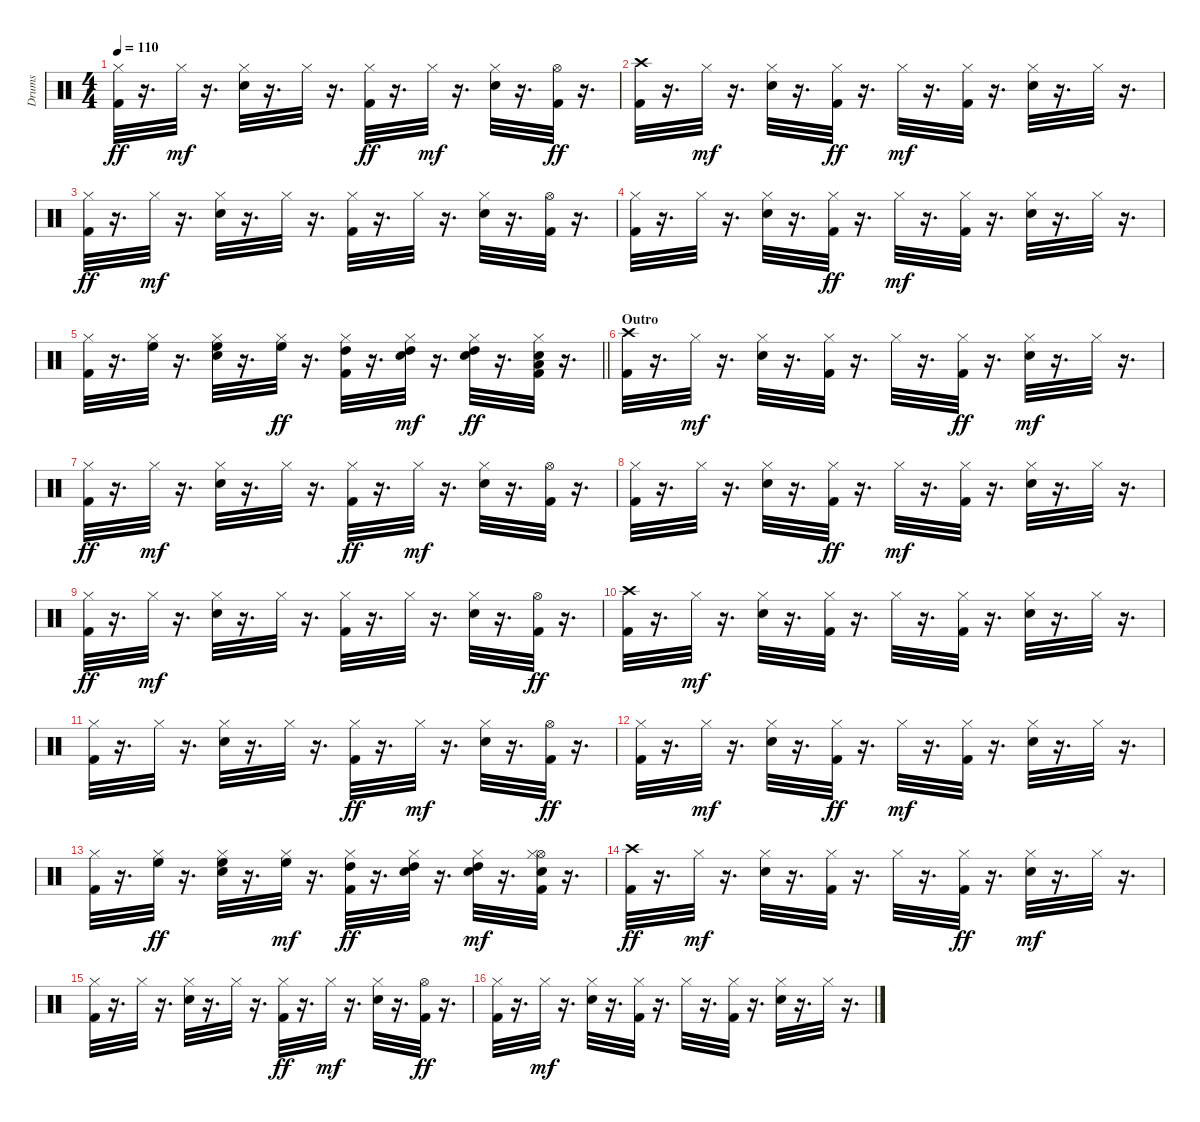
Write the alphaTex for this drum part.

\track ("Drums" "Drums") {instrument percussion}
\staff {score}
\articulation defaults
\ts (4 4)
\tempo 110
\clef neutral
\ks c
("Hi-Hat (closed)" "Kick (hit) 2").32{dy ff} r.16{d} "Hi-Hat (closed)".32{dy mf} r.16{d} ("Hi-Hat (closed)" "Snare (hit) 2").32 r.16{d} "Hi-Hat (closed)".32 r.16{d} ("Hi-Hat (closed)" "Kick (hit) 2").32{dy ff} r.16{d} "Hi-Hat (closed)".32{dy mf} r.16{d} ("Snare (hit) 2" "Hi-Hat (closed)").32 r.16{d} ("Hi-Hat (open)" "Kick (hit) 2").32{dy ff} r.16{d} |
("Kick (hit) 2" "Crash high (hit)").32 r.16{d} "Hi-Hat (closed)".32{dy mf} r.16{d} ("Snare (hit) 2" "Hi-Hat (closed)").32 r.16{d} ("Hi-Hat (closed)" "Kick (hit) 2").32{dy ff} r.16{d} "Hi-Hat (closed)".32{dy mf} r.16{d} ("Kick (hit) 2" "Hi-Hat (closed)").32 r.16{d} ("Hi-Hat (closed)" "Snare (hit) 2").32 r.16{d} "Hi-Hat (closed)".32 r.16{d} |
("Hi-Hat (closed)" "Kick (hit) 2").32{dy ff} r.16{d} "Hi-Hat (closed)".32{dy mf} r.16{d} ("Snare (hit) 2" "Hi-Hat (closed)").32 r.16{d} "Hi-Hat (closed)".32 r.16{d} ("Kick (hit) 2" "Hi-Hat (closed)").32 r.16{d} "Hi-Hat (closed)".32 r.16{d} ("Hi-Hat (closed)" "Snare (hit) 2").32 r.16{d} ("Kick (hit) 2" "Hi-Hat (open)").32 r.16{d} |
("Kick (hit) 2" "Hi-Hat (closed)").32 r.16{d} "Hi-Hat (closed)".32 r.16{d} ("Hi-Hat (closed)" "Snare (hit) 2").32 r.16{d} ("Hi-Hat (closed)" "Kick (hit) 2").32{dy ff} r.16{d} "Hi-Hat (closed)".32{dy mf} r.16{d} ("Kick (hit) 2" "Hi-Hat (closed)").32 r.16{d} ("Snare (hit) 2" "Hi-Hat (closed)").32 r.16{d} "Hi-Hat (closed)".32 r.16{d} |
\barLineRight lightlight
("Kick (hit) 2" "Hi-Hat (closed)").32 r.16{d} ("High Floor Tom (hit)" "Hi-Hat (closed)").32 r.16{d} ("High Floor Tom (hit)" "Hi-Hat (closed)" "Snare (hit) 2").32 r.16{d} ("Hi-Hat (closed)" "High Floor Tom (hit)").32{dy ff} r.16{d} ("Kick (hit) 2" "Hi-Hat (closed)" "High Tom (hit)").32 r.16{d} ("High Tom (hit)" "Hi-Hat (closed)" "Snare (hit) 2").32{dy mf} r.16{d} ("Hi-Hat (closed)" "Snare (hit) 2" "High Tom (hit)").32{dy ff} r.16{d} ("Kick (hit) 2" "Hi-Hat (closed)" "Snare (hit) 2" "Low Tom (hit)").32 r.16{d} |
\section ("" "Outro")
("Crash high (hit)" "Kick (hit) 2").32 r.16{d} "Hi-Hat (closed)".32{dy mf} r.16{d} ("Snare (hit) 2" "Hi-Hat (closed)").32 r.16{d} ("Kick (hit) 2" "Hi-Hat (closed)").32 r.16{d} "Hi-Hat (closed)".32 r.16{d} ("Hi-Hat (closed)" "Kick (hit) 2").32{dy ff} r.16{d} ("Hi-Hat (closed)" "Snare (hit) 2").32{dy mf} r.16{d} "Hi-Hat (closed)".32 r.16{d} |
("Hi-Hat (closed)" "Kick (hit) 2").32{dy ff} r.16{d} "Hi-Hat (closed)".32{dy mf} r.16{d} ("Hi-Hat (closed)" "Snare (hit) 2").32 r.16{d} "Hi-Hat (closed)".32 r.16{d} ("Hi-Hat (closed)" "Kick (hit) 2").32{dy ff} r.16{d} "Hi-Hat (closed)".32{dy mf} r.16{d} ("Hi-Hat (closed)" "Snare (hit) 2").32 r.16{d} ("Kick (hit) 2" "Hi-Hat (open)").32 r.16{d} |
("Kick (hit) 2" "Hi-Hat (closed)").32 r.16{d} "Hi-Hat (closed)".32 r.16{d} ("Snare (hit) 2" "Hi-Hat (closed)").32 r.16{d} ("Hi-Hat (closed)" "Kick (hit) 2").32{dy ff} r.16{d} "Hi-Hat (closed)".32{dy mf} r.16{d} ("Kick (hit) 2" "Hi-Hat (closed)").32 r.16{d} ("Snare (hit) 2" "Hi-Hat (closed)").32 r.16{d} "Hi-Hat (closed)".32 r.16{d} |
("Hi-Hat (closed)" "Kick (hit) 2").32{dy ff} r.16{d} "Hi-Hat (closed)".32{dy mf} r.16{d} ("Snare (hit) 2" "Hi-Hat (closed)").32 r.16{d} "Hi-Hat (closed)".32 r.16{d} ("Kick (hit) 2" "Hi-Hat (closed)").32 r.16{d} "Hi-Hat (closed)".32 r.16{d} ("Snare (hit) 2" "Hi-Hat (closed)").32 r.16{d} ("Hi-Hat (open)" "Kick (hit) 2").32{dy ff} r.16{d} |
("Crash high (hit)" "Kick (hit) 2").32 r.16{d} "Hi-Hat (closed)".32{dy mf} r.16{d} ("Snare (hit) 2" "Hi-Hat (closed)").32 r.16{d} ("Kick (hit) 2" "Hi-Hat (closed)").32 r.16{d} "Hi-Hat (closed)".32 r.16{d} ("Kick (hit) 2" "Hi-Hat (closed)").32 r.16{d} ("Snare (hit) 2" "Hi-Hat (closed)").32 r.16{d} "Hi-Hat (closed)".32 r.16{d} |
("Kick (hit) 2" "Hi-Hat (closed)").32 r.16{d} "Hi-Hat (closed)".32 r.16{d} ("Snare (hit) 2" "Hi-Hat (closed)").32 r.16{d} "Hi-Hat (closed)".32 r.16{d} ("Hi-Hat (closed)" "Kick (hit) 2").32{dy ff} r.16{d} "Hi-Hat (closed)".32{dy mf} r.16{d} ("Snare (hit) 2" "Hi-Hat (closed)").32 r.16{d} ("Hi-Hat (open)" "Kick (hit) 2").32{dy ff} r.16{d} |
("Hi-Hat (closed)" "Kick (hit) 2").32 r.16{d} "Hi-Hat (closed)".32{dy mf} r.16{d} ("Snare (hit) 2" "Hi-Hat (closed)").32 r.16{d} ("Hi-Hat (closed)" "Kick (hit) 2").32{dy ff} r.16{d} "Hi-Hat (closed)".32{dy mf} r.16{d} ("Kick (hit) 2" "Hi-Hat (closed)").32 r.16{d} ("Hi-Hat (closed)" "Snare (hit) 2").32 r.16{d} "Hi-Hat (closed)".32 r.16{d} |
("Kick (hit) 2" "Hi-Hat (closed)").32 r.16{d} ("Hi-Hat (closed)" "High Floor Tom (hit)").32{dy ff} r.16{d} ("Hi-Hat (closed)" "Snare (hit) 2" "High Floor Tom (hit)").32 r.16{d} ("High Floor Tom (hit)" "Hi-Hat (closed)").32{dy mf} r.16{d} ("Hi-Hat (closed)" "High Tom (hit)" "Kick (hit) 2").32{dy ff} r.16{d} ("Hi-Hat (closed)" "Snare (hit) 2" "High Tom (hit)").32 r.16{d} ("High Tom (hit)" "Snare (hit) 2" "Hi-Hat (closed)").32{dy mf} r.16{d} ("Snare (hit) 2" "Kick (hit) 2" "Hi-Hat (open)" "Hi-Hat (closed)").32 r.16{d} |
("Crash high (hit)" "Kick (hit) 2").32{dy ff} r.16{d} "Hi-Hat (closed)".32{dy mf} r.16{d} ("Snare (hit) 2" "Hi-Hat (closed)").32 r.16{d} ("Kick (hit) 2" "Hi-Hat (closed)").32 r.16{d} "Hi-Hat (closed)".32 r.16{d} ("Hi-Hat (closed)" "Kick (hit) 2").32{dy ff} r.16{d} ("Snare (hit) 2" "Hi-Hat (closed)").32{dy mf} r.16{d} "Hi-Hat (closed)".32 r.16{d} |
("Kick (hit) 2" "Hi-Hat (closed)").32 r.16{d} "Hi-Hat (closed)".32 r.16{d} ("Hi-Hat (closed)" "Snare (hit) 2").32 r.16{d} "Hi-Hat (closed)".32 r.16{d} ("Hi-Hat (closed)" "Kick (hit) 2").32{dy ff} r.16{d} "Hi-Hat (closed)".32{dy mf} r.16{d} ("Snare (hit) 2" "Hi-Hat (closed)").32 r.16{d} ("Hi-Hat (open)" "Kick (hit) 2").32{dy ff} r.16{d} |
("Hi-Hat (closed)" "Kick (hit) 2").32 r.16{d} "Hi-Hat (closed)".32{dy mf} r.16{d} ("Hi-Hat (closed)" "Snare (hit) 2").32 r.16{d} ("Kick (hit) 2" "Hi-Hat (closed)").32 r.16{d} "Hi-Hat (closed)".32 r.16{d} ("Kick (hit) 2" "Hi-Hat (closed)").32 r.16{d} ("Hi-Hat (closed)" "Snare (hit) 2").32 r.16{d} "Hi-Hat (closed)".32 r.16{d}
